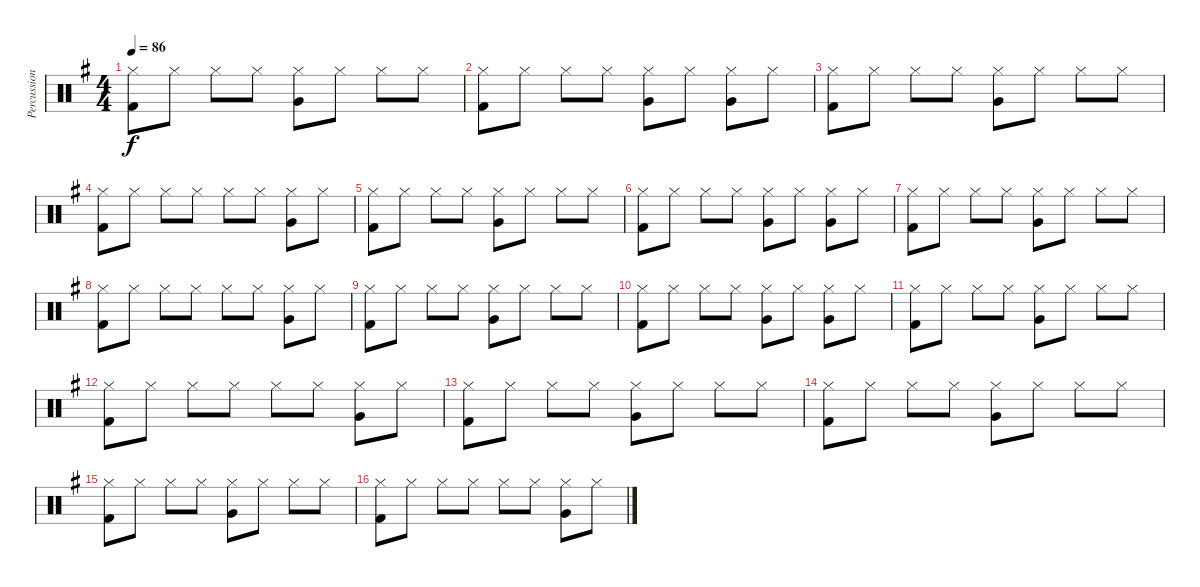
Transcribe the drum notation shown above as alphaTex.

\track ("Percussions" "Percussion") {instrument percussion}
\staff {score}
\articulation defaults
\ts (4 4)
\tempo 86
\clef neutral
\ks g
("Hi-Hat (closed)" "Kick (hit) 2").8{dy f} "Hi-Hat (closed)".8 "Hi-Hat (closed)".8 "Hi-Hat (closed)".8 ("Hi-Hat (closed)" "Very Low Tom (hit)").8 "Hi-Hat (closed)".8 "Hi-Hat (closed)".8 "Hi-Hat (closed)".8 |
("Hi-Hat (closed)" "Kick (hit) 2").8 "Hi-Hat (closed)".8 "Hi-Hat (closed)".8 "Hi-Hat (closed)".8 ("Hi-Hat (closed)" "Very Low Tom (hit)").8 "Hi-Hat (closed)".8 ("Hi-Hat (closed)" "Very Low Tom (hit)").8 "Hi-Hat (closed)".8 |
("Hi-Hat (closed)" "Kick (hit) 2").8 "Hi-Hat (closed)".8 "Hi-Hat (closed)".8 "Hi-Hat (closed)".8 ("Hi-Hat (closed)" "Very Low Tom (hit)").8 "Hi-Hat (closed)".8 "Hi-Hat (closed)".8 "Hi-Hat (closed)".8 |
("Hi-Hat (closed)" "Kick (hit) 2").8 "Hi-Hat (closed)".8 "Hi-Hat (closed)".8 "Hi-Hat (closed)".8 "Hi-Hat (closed)".8 "Hi-Hat (closed)".8 ("Hi-Hat (closed)" "Very Low Tom (hit)").8 "Hi-Hat (closed)".8 |
("Hi-Hat (closed)" "Kick (hit) 2").8 "Hi-Hat (closed)".8 "Hi-Hat (closed)".8 "Hi-Hat (closed)".8 ("Hi-Hat (closed)" "Very Low Tom (hit)").8 "Hi-Hat (closed)".8 "Hi-Hat (closed)".8 "Hi-Hat (closed)".8 |
("Hi-Hat (closed)" "Kick (hit) 2").8 "Hi-Hat (closed)".8 "Hi-Hat (closed)".8 "Hi-Hat (closed)".8 ("Hi-Hat (closed)" "Very Low Tom (hit)").8 "Hi-Hat (closed)".8 ("Hi-Hat (closed)" "Very Low Tom (hit)").8 "Hi-Hat (closed)".8 |
("Hi-Hat (closed)" "Kick (hit) 2").8 "Hi-Hat (closed)".8 "Hi-Hat (closed)".8 "Hi-Hat (closed)".8 ("Hi-Hat (closed)" "Very Low Tom (hit)").8 "Hi-Hat (closed)".8 "Hi-Hat (closed)".8 "Hi-Hat (closed)".8 |
("Hi-Hat (closed)" "Kick (hit) 2").8 "Hi-Hat (closed)".8 "Hi-Hat (closed)".8 "Hi-Hat (closed)".8 "Hi-Hat (closed)".8 "Hi-Hat (closed)".8 ("Hi-Hat (closed)" "Very Low Tom (hit)").8 "Hi-Hat (closed)".8 |
("Hi-Hat (closed)" "Kick (hit) 2").8 "Hi-Hat (closed)".8 "Hi-Hat (closed)".8 "Hi-Hat (closed)".8 ("Hi-Hat (closed)" "Very Low Tom (hit)").8 "Hi-Hat (closed)".8 "Hi-Hat (closed)".8 "Hi-Hat (closed)".8 |
("Hi-Hat (closed)" "Kick (hit) 2").8 "Hi-Hat (closed)".8 "Hi-Hat (closed)".8 "Hi-Hat (closed)".8 ("Hi-Hat (closed)" "Very Low Tom (hit)").8 "Hi-Hat (closed)".8 ("Hi-Hat (closed)" "Very Low Tom (hit)").8 "Hi-Hat (closed)".8 |
("Hi-Hat (closed)" "Kick (hit) 2").8 "Hi-Hat (closed)".8 "Hi-Hat (closed)".8 "Hi-Hat (closed)".8 ("Hi-Hat (closed)" "Very Low Tom (hit)").8 "Hi-Hat (closed)".8 "Hi-Hat (closed)".8 "Hi-Hat (closed)".8 |
("Hi-Hat (closed)" "Kick (hit) 2").8 "Hi-Hat (closed)".8 "Hi-Hat (closed)".8 "Hi-Hat (closed)".8 "Hi-Hat (closed)".8 "Hi-Hat (closed)".8 ("Hi-Hat (closed)" "Very Low Tom (hit)").8 "Hi-Hat (closed)".8 |
("Hi-Hat (closed)" "Kick (hit) 2").8 "Hi-Hat (closed)".8 "Hi-Hat (closed)".8 "Hi-Hat (closed)".8 ("Hi-Hat (closed)" "Very Low Tom (hit)").8 "Hi-Hat (closed)".8 "Hi-Hat (closed)".8 "Hi-Hat (closed)".8 |
("Hi-Hat (closed)" "Kick (hit) 2").8 "Hi-Hat (closed)".8 "Hi-Hat (closed)".8 "Hi-Hat (closed)".8 ("Hi-Hat (closed)" "Very Low Tom (hit)").8 "Hi-Hat (closed)".8 "Hi-Hat (closed)".8 "Hi-Hat (closed)".8 |
("Hi-Hat (closed)" "Kick (hit) 2").8 "Hi-Hat (closed)".8 "Hi-Hat (closed)".8 "Hi-Hat (closed)".8 ("Hi-Hat (closed)" "Very Low Tom (hit)").8 "Hi-Hat (closed)".8 "Hi-Hat (closed)".8 "Hi-Hat (closed)".8 |
("Hi-Hat (closed)" "Kick (hit) 2").8 "Hi-Hat (closed)".8 "Hi-Hat (closed)".8 "Hi-Hat (closed)".8 "Hi-Hat (closed)".8 "Hi-Hat (closed)".8 ("Hi-Hat (closed)" "Very Low Tom (hit)").8 "Hi-Hat (closed)".8
